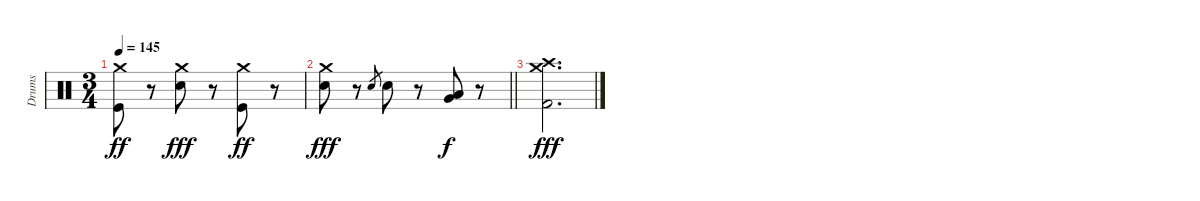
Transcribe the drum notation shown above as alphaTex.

\track ("Drums" "Drums") {instrument percussion}
\staff {score}
\articulation defaults
\ts (3 4)
\tempo 145
\clef neutral
\ks c
("Crash medium (hit)" "Kick (hit)").8{dy ff} r.8 ("Crash medium (hit)" "Electric Snare (hit)").8{dy fff} r.8 ("Crash medium (hit)" "Kick (hit)").8{dy ff} r.8 |
\barLineRight lightlight
("Crash medium (hit)" "Electric Snare (hit)").8{dy fff} r.8 "Electric Snare (hit)".8{gr} "Electric Snare (hit)".8 r.8 ("Low Tom (hit)" "Very Low Tom (hit)").8{dy f} r.8 |
("Crash high (hit)" "Crash medium (hit)" "Kick (hit) 2").2{d dy fff}
